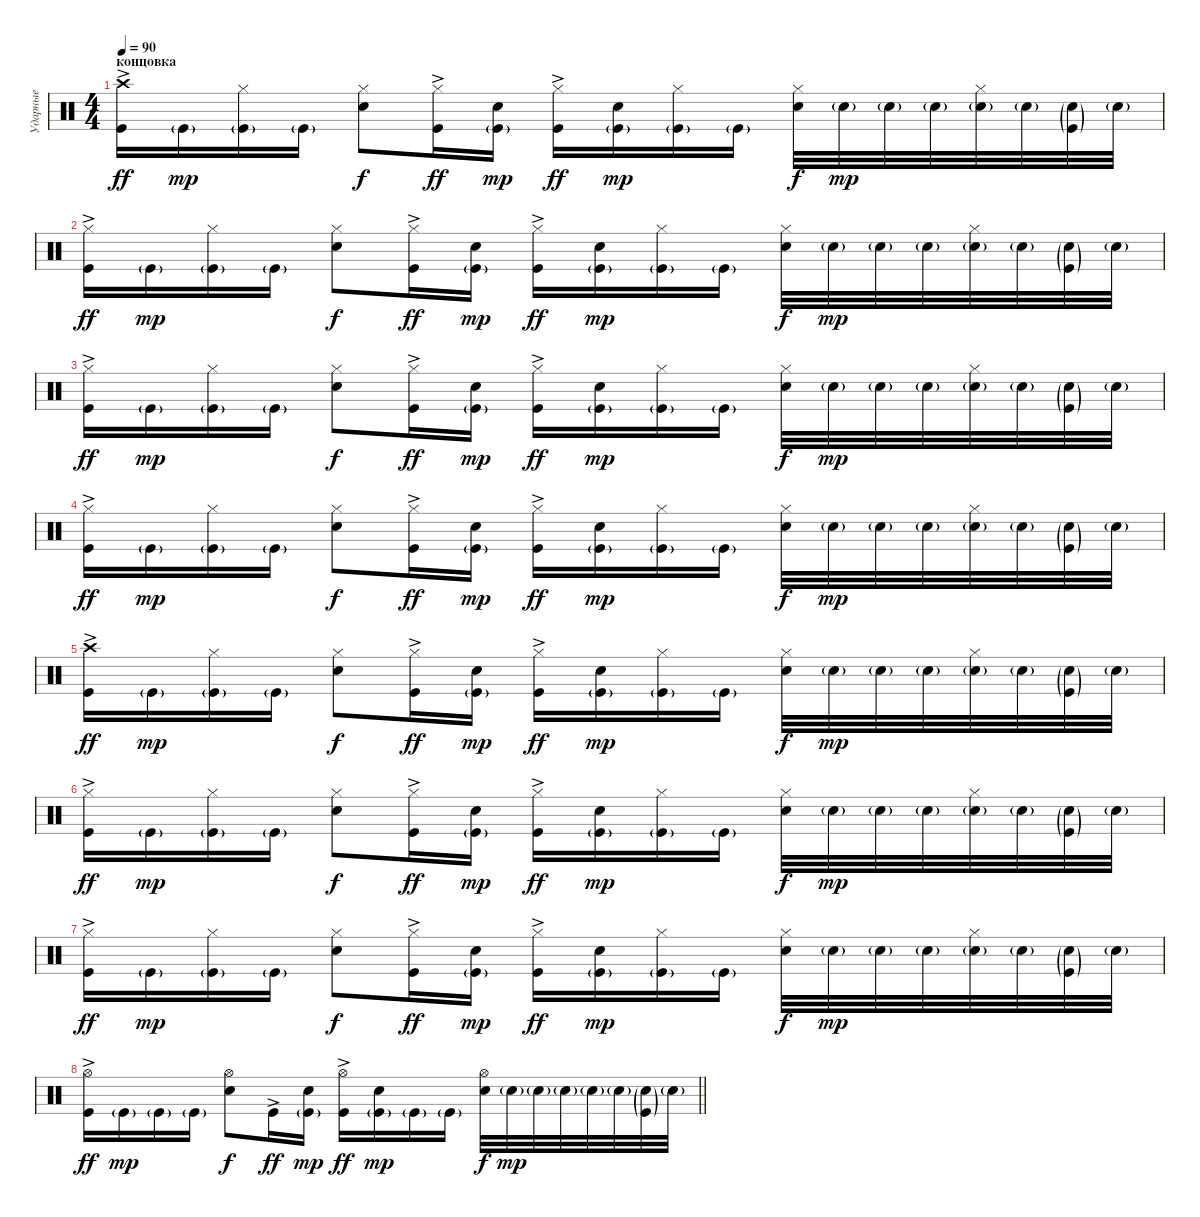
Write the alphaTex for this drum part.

\track ("Ударные" "Ударные") {instrument percussion}
\staff {score}
\articulation defaults
\ts (4 4)
\section ("" "концовка")
\tempo 90
\clef neutral
\ks c
("Kick (hit)"{ac} "Crash high (hit)").16{dy ff volume 16} "Kick (hit)"{g}.16{dy mp} ("Kick (hit)"{g} "Hi-Hat (closed)").16 "Kick (hit)"{g}.16 ("Electric Snare (hit)" "Hi-Hat (closed)").8{dy f} ("Kick (hit)"{ac} "Hi-Hat (closed)").16{dy ff} ("Kick (hit)"{g} "Electric Snare (hit)").16{dy mp} ("Kick (hit)"{ac} "Hi-Hat (closed)").16{dy ff} ("Kick (hit)"{g} "Electric Snare (hit)").16{dy mp} ("Kick (hit)"{g} "Hi-Hat (closed)").16 "Kick (hit)"{g}.16 ("Hi-Hat (closed)" "Electric Snare (hit)").32{dy f} "Snare (hit) 2"{g}.32{dy mp} "Snare (hit) 2"{g}.32 "Snare (hit) 2"{g}.32 ("Snare (hit) 2"{g} "Hi-Hat (closed)").32 "Snare (hit) 2"{g}.32 ("Snare (hit) 2"{g} "Kick (hit)"{g}).32 "Snare (hit) 2"{g}.32 |
("Kick (hit)"{ac} "Hi-Hat (closed)").16{dy ff} "Kick (hit)"{g}.16{dy mp} ("Kick (hit)"{g} "Hi-Hat (closed)").16 "Kick (hit)"{g}.16 ("Electric Snare (hit)" "Hi-Hat (closed)").8{dy f} ("Kick (hit)"{ac} "Hi-Hat (closed)").16{dy ff} ("Kick (hit)"{g} "Electric Snare (hit)").16{dy mp} ("Kick (hit)"{ac} "Hi-Hat (closed)").16{dy ff} ("Kick (hit)"{g} "Electric Snare (hit)").16{dy mp} ("Kick (hit)"{g} "Hi-Hat (closed)").16 "Kick (hit)"{g}.16 ("Hi-Hat (closed)" "Electric Snare (hit)").32{dy f} "Snare (hit) 2"{g}.32{dy mp} "Snare (hit) 2"{g}.32 "Snare (hit) 2"{g}.32 ("Snare (hit) 2"{g} "Hi-Hat (closed)").32 "Snare (hit) 2"{g}.32 ("Snare (hit) 2"{g} "Kick (hit)"{g}).32 "Snare (hit) 2"{g}.32 |
("Kick (hit)"{ac} "Hi-Hat (closed)").16{dy ff} "Kick (hit)"{g}.16{dy mp} ("Kick (hit)"{g} "Hi-Hat (closed)").16 "Kick (hit)"{g}.16 ("Electric Snare (hit)" "Hi-Hat (closed)").8{dy f} ("Kick (hit)"{ac} "Hi-Hat (closed)").16{dy ff} ("Kick (hit)"{g} "Electric Snare (hit)").16{dy mp} ("Kick (hit)"{ac} "Hi-Hat (closed)").16{dy ff} ("Kick (hit)"{g} "Electric Snare (hit)").16{dy mp} ("Kick (hit)"{g} "Hi-Hat (closed)").16 "Kick (hit)"{g}.16 ("Hi-Hat (closed)" "Electric Snare (hit)").32{dy f} "Snare (hit) 2"{g}.32{dy mp} "Snare (hit) 2"{g}.32 "Snare (hit) 2"{g}.32 ("Snare (hit) 2"{g} "Hi-Hat (closed)").32 "Snare (hit) 2"{g}.32 ("Snare (hit) 2"{g} "Kick (hit)"{g}).32 "Snare (hit) 2"{g}.32 |
("Kick (hit)"{ac} "Hi-Hat (closed)").16{dy ff} "Kick (hit)"{g}.16{dy mp} ("Kick (hit)"{g} "Hi-Hat (closed)").16 "Kick (hit)"{g}.16 ("Electric Snare (hit)" "Hi-Hat (closed)").8{dy f} ("Kick (hit)"{ac} "Hi-Hat (closed)").16{dy ff} ("Kick (hit)"{g} "Electric Snare (hit)").16{dy mp} ("Kick (hit)"{ac} "Hi-Hat (closed)").16{dy ff} ("Kick (hit)"{g} "Electric Snare (hit)").16{dy mp} ("Kick (hit)"{g} "Hi-Hat (closed)").16 "Kick (hit)"{g}.16 ("Hi-Hat (closed)" "Electric Snare (hit)").32{dy f} "Snare (hit) 2"{g}.32{dy mp} "Snare (hit) 2"{g}.32 "Snare (hit) 2"{g}.32 ("Snare (hit) 2"{g} "Hi-Hat (closed)").32 "Snare (hit) 2"{g}.32 ("Snare (hit) 2"{g} "Kick (hit)"{g}).32 "Snare (hit) 2"{g}.32 |
("Kick (hit)"{ac} "Crash high (hit)").16{dy ff volume 16} "Kick (hit)"{g}.16{dy mp} ("Kick (hit)"{g} "Hi-Hat (closed)").16 "Kick (hit)"{g}.16 ("Electric Snare (hit)" "Hi-Hat (closed)").8{dy f} ("Kick (hit)"{ac} "Hi-Hat (closed)").16{dy ff} ("Kick (hit)"{g} "Electric Snare (hit)").16{dy mp} ("Kick (hit)"{ac} "Hi-Hat (closed)").16{dy ff} ("Kick (hit)"{g} "Electric Snare (hit)").16{dy mp} ("Kick (hit)"{g} "Hi-Hat (closed)").16 "Kick (hit)"{g}.16 ("Hi-Hat (closed)" "Electric Snare (hit)").32{dy f} "Snare (hit) 2"{g}.32{dy mp} "Snare (hit) 2"{g}.32 "Snare (hit) 2"{g}.32 ("Snare (hit) 2"{g} "Hi-Hat (closed)").32 "Snare (hit) 2"{g}.32 ("Snare (hit) 2"{g} "Kick (hit)"{g}).32 "Snare (hit) 2"{g}.32 |
("Kick (hit)"{ac} "Hi-Hat (closed)").16{dy ff} "Kick (hit)"{g}.16{dy mp} ("Kick (hit)"{g} "Hi-Hat (closed)").16 "Kick (hit)"{g}.16 ("Electric Snare (hit)" "Hi-Hat (closed)").8{dy f} ("Kick (hit)"{ac} "Hi-Hat (closed)").16{dy ff} ("Kick (hit)"{g} "Electric Snare (hit)").16{dy mp} ("Kick (hit)"{ac} "Hi-Hat (closed)").16{dy ff} ("Kick (hit)"{g} "Electric Snare (hit)").16{dy mp} ("Kick (hit)"{g} "Hi-Hat (closed)").16 "Kick (hit)"{g}.16 ("Hi-Hat (closed)" "Electric Snare (hit)").32{dy f} "Snare (hit) 2"{g}.32{dy mp} "Snare (hit) 2"{g}.32 "Snare (hit) 2"{g}.32 ("Snare (hit) 2"{g} "Hi-Hat (closed)").32 "Snare (hit) 2"{g}.32 ("Snare (hit) 2"{g} "Kick (hit)"{g}).32 "Snare (hit) 2"{g}.32 |
("Kick (hit)"{ac} "Hi-Hat (closed)").16{dy ff} "Kick (hit)"{g}.16{dy mp} ("Kick (hit)"{g} "Hi-Hat (closed)").16 "Kick (hit)"{g}.16 ("Electric Snare (hit)" "Hi-Hat (closed)").8{dy f} ("Kick (hit)"{ac} "Hi-Hat (closed)").16{dy ff} ("Kick (hit)"{g} "Electric Snare (hit)").16{dy mp} ("Kick (hit)"{ac} "Hi-Hat (closed)").16{dy ff} ("Kick (hit)"{g} "Electric Snare (hit)").16{dy mp} ("Kick (hit)"{g} "Hi-Hat (closed)").16 "Kick (hit)"{g}.16 ("Hi-Hat (closed)" "Electric Snare (hit)").32{dy f} "Snare (hit) 2"{g}.32{dy mp} "Snare (hit) 2"{g}.32 "Snare (hit) 2"{g}.32 ("Snare (hit) 2"{g} "Hi-Hat (closed)").32 "Snare (hit) 2"{g}.32 ("Snare (hit) 2"{g} "Kick (hit)"{g}).32 "Snare (hit) 2"{g}.32 |
\barLineRight lightlight
("Kick (hit)"{ac} "Hi-Hat (open)").16{dy ff} "Kick (hit)"{g}.16{dy mp} "Kick (hit)"{g}.16 "Kick (hit)"{g}.16 ("Electric Snare (hit)" "Hi-Hat (open)").8{dy f} "Kick (hit)"{ac}.16{dy ff} ("Kick (hit)"{g} "Electric Snare (hit)").16{dy mp} ("Kick (hit)"{ac} "Hi-Hat (open)").16{dy ff} ("Kick (hit)"{g} "Electric Snare (hit)").16{dy mp} "Kick (hit)"{g}.16 "Kick (hit)"{g}.16 ("Hi-Hat (open)" "Electric Snare (hit)").32{dy f} "Snare (hit) 2"{g}.32{dy mp} "Snare (hit) 2"{g}.32 "Snare (hit) 2"{g}.32 "Snare (hit) 2"{g}.32 "Snare (hit) 2"{g}.32 ("Snare (hit) 2"{g} "Kick (hit)"{g}).32 "Snare (hit) 2"{g}.32
